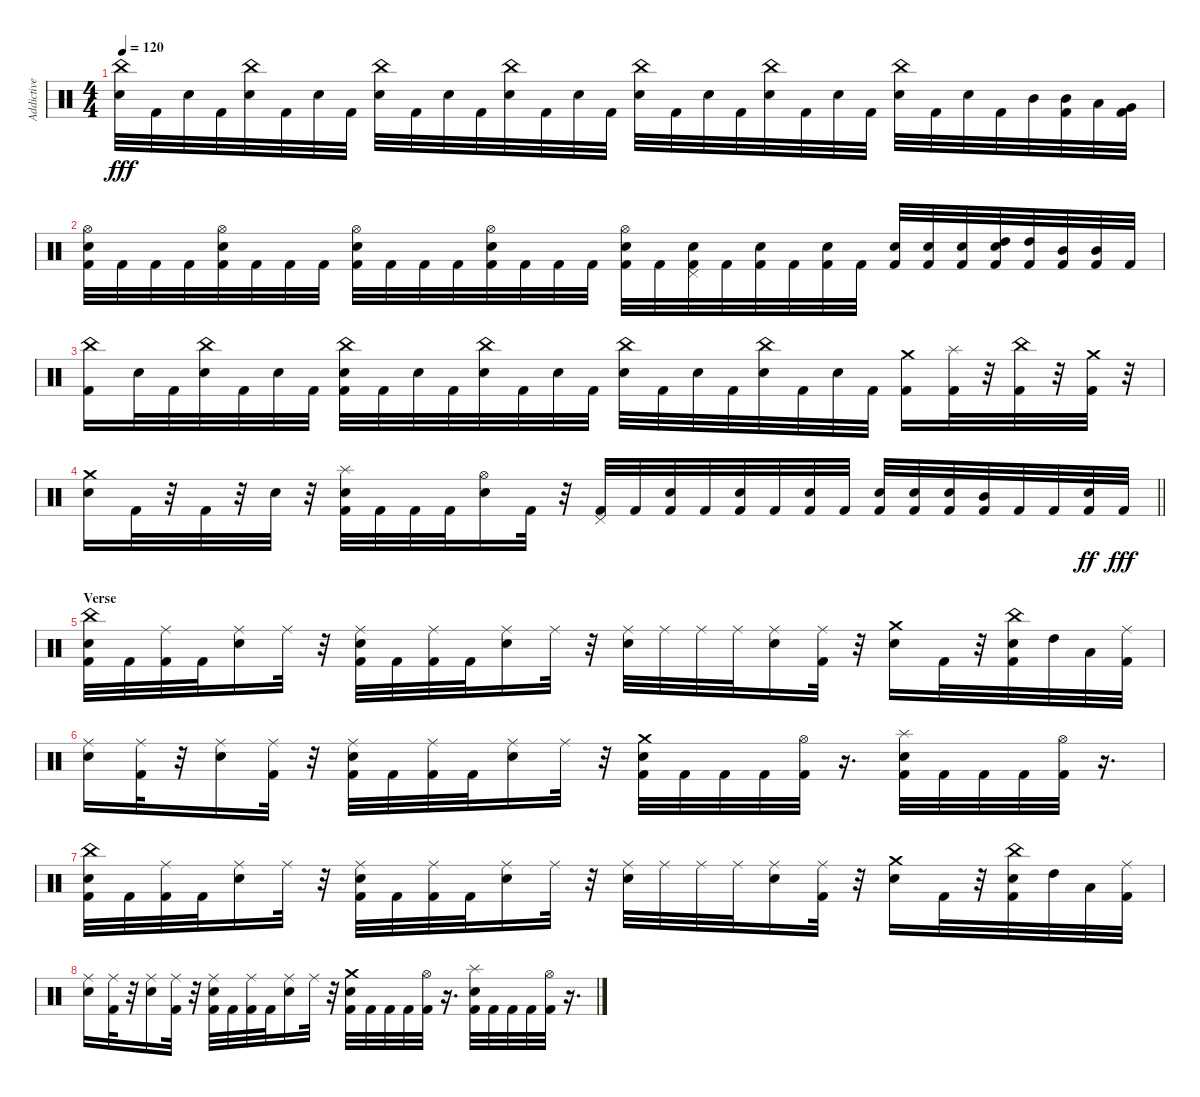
\track ("Addictive Drums 07" "Addictive ") {instrument percussion}
\staff {score}
\articulation defaults
\ts (4 4)
\tempo 120
\clef neutral
\ks c
("Snare (hit) 2" "China (hit)").32{dy fff} "Kick (hit) 2".32 "Snare (hit) 2".32 "Kick (hit) 2".32 ("Snare (hit) 2" "China (hit)").32 "Kick (hit) 2".32 "Snare (hit) 2".32 "Kick (hit) 2".32 ("Snare (hit) 2" "China (hit)").32 "Kick (hit) 2".32 "Snare (hit) 2".32 "Kick (hit) 2".32 ("Snare (hit) 2" "China (hit)").32 "Kick (hit) 2".32 "Snare (hit) 2".32 "Kick (hit) 2".32 ("Snare (hit) 2" "China (hit)").32 "Kick (hit) 2".32 "Snare (hit) 2".32 "Kick (hit) 2".32 ("Snare (hit) 2" "China (hit)").32 "Kick (hit) 2".32 "Snare (hit) 2".32 "Kick (hit) 2".32 ("Snare (hit) 2" "China (hit)").32 "Kick (hit) 2".32 "Snare (hit) 2".32 "Kick (hit) 2".32 "Mid Tom (hit)".32 ("Kick (hit) 2" "Mid Tom (hit)").32 "Low Tom (hit)".32 ("Kick (hit) 2" "Very Low Tom (hit)").32 |
("Kick (hit) 2" "Snare (hit) 2" "Hi-Hat (open)").32 "Kick (hit) 2".32 "Kick (hit) 2".32 "Kick (hit) 2".32 ("Kick (hit) 2" "Snare (hit) 2" "Hi-Hat (open)").32 "Kick (hit) 2".32 "Kick (hit) 2".32 "Kick (hit) 2".32 ("Kick (hit) 2" "Snare (hit) 2" "Hi-Hat (open)").32 "Kick (hit) 2".32 "Kick (hit) 2".32 "Kick (hit) 2".32 ("Kick (hit) 2" "Snare (hit) 2" "Hi-Hat (open)").32 "Kick (hit) 2".32 "Kick (hit) 2".32 "Kick (hit) 2".32 ("Kick (hit) 2" "Snare (hit) 2" "Hi-Hat (open)").32 "Kick (hit) 2".32 ("Kick (hit) 2" "Snare (hit) 2" "Pedal Hi-Hat (hit)").32 "Kick (hit) 2".32 ("Kick (hit) 2" "Snare (hit) 2").32 "Kick (hit) 2".32 ("Kick (hit) 2" "Snare (hit) 2").32 "Kick (hit) 2".32 ("Kick (hit) 2" "Snare (hit) 2").32 ("Kick (hit) 2" "Snare (hit) 2").32 ("Kick (hit) 2" "Snare (hit) 2").32 ("Kick (hit) 2" "Snare (hit) 2" "High Tom (hit)").32 ("Kick (hit) 2" "High Tom (hit)").32 ("Kick (hit) 2" "Mid Tom (hit)").32 ("Kick (hit) 2" "Mid Tom (hit)").32 "Kick (hit) 2".32 |
("Kick (hit) 2" "China (hit)").16 "Snare (hit) 2".32 "Kick (hit) 2".32 ("Snare (hit) 2" "China (hit)").32 "Kick (hit) 2".32 "Snare (hit) 2".32 "Kick (hit) 2".32 ("Kick (hit) 2" "Snare (hit) 2" "China (hit)").32 "Kick (hit) 2".32 "Snare (hit) 2".32 "Kick (hit) 2".32 ("Snare (hit) 2" "China (hit)").32 "Kick (hit) 2".32 "Snare (hit) 2".32 "Kick (hit) 2".32 ("Snare (hit) 2" "China (hit)").32 "Kick (hit) 2".32 "Snare (hit) 2".32 "Kick (hit) 2".32 ("Snare (hit) 2" "China (hit)").32 "Kick (hit) 2".32 "Snare (hit) 2".32 "Kick (hit) 2".32 ("Kick (hit) 2" "Crash medium (hit)").16 ("Kick (hit) 2" "Splash (hit)").32 r.32 ("Kick (hit) 2" "China (hit)").32 r.32 ("Kick (hit) 2" "Crash medium (hit)").32 r.32 |
\barLineRight lightlight
("Snare (hit) 2" "Crash medium (hit)").16 "Kick (hit) 2".32 r.32 "Kick (hit) 2".32 r.32 "Snare (hit) 2".32 r.32 ("Kick (hit) 2" "Snare (hit) 2" "Splash (hit)").32 "Kick (hit) 2".32 "Kick (hit) 2".32 "Kick (hit) 2".32 ("Snare (hit) 2" "Hi-Hat (open)").16 "Kick (hit) 2".32 r.32 ("Kick (hit) 2" "Pedal Hi-Hat (hit)").32 "Kick (hit) 2".32 ("Kick (hit) 2" "Snare (hit) 2").32 "Kick (hit) 2".32 ("Kick (hit) 2" "Snare (hit) 2").32 "Kick (hit) 2".32 ("Kick (hit) 2" "Snare (hit) 2").32 "Kick (hit) 2".32 ("Kick (hit) 2" "Snare (hit) 2").32 ("Kick (hit) 2" "Snare (hit) 2").32 ("Kick (hit) 2" "Snare (hit) 2").32 ("Kick (hit) 2" "Mid Tom (hit)").32 "Kick (hit) 2".32 "Kick (hit) 2".32 ("Kick (hit) 2" "Snare (hit) 2").32{dy ff} "Kick (hit) 2".32{dy fff} |
\section ("" "Verse")
("Kick (hit) 2" "Snare (hit) 2" "China (hit)").32 "Kick (hit) 2".32 ("Kick (hit) 2" "Ride (middle)").32 "Kick (hit) 2".32 ("Snare (hit) 2" "Ride (middle)").16 "Ride (middle)".32 r.32 ("Kick (hit) 2" "Snare (hit) 2" "Ride (middle)").32 "Kick (hit) 2".32 ("Kick (hit) 2" "Ride (middle)").32 "Kick (hit) 2".32 ("Snare (hit) 2" "Ride (middle)").16 "Ride (middle)".32 r.32 ("Snare (hit) 2" "Ride (middle)").32 "Ride (middle)".32 "Ride (middle)".32 "Ride (middle)".32 ("Snare (hit) 2" "Ride (middle)").16 ("Kick (hit) 2" "Ride (middle)").32 r.32 ("Snare (hit) 2" "Crash medium (hit)").16 "Kick (hit) 2".32 r.32 ("Kick (hit) 2" "Snare (hit) 2" "China (hit)").32 "High Tom (hit)".32 "Low Tom (hit)".32 ("Kick (hit) 2" "Ride (middle)").32 |
("Snare (hit) 2" "Ride (middle)").16 ("Kick (hit) 2" "Ride (middle)").32 r.32 ("Snare (hit) 2" "Ride (middle)").16 ("Kick (hit) 2" "Ride (middle)").32 r.32 ("Kick (hit) 2" "Snare (hit) 2" "Ride (middle)").32 "Kick (hit) 2".32 ("Kick (hit) 2" "Ride (middle)").32 "Kick (hit) 2".32 ("Snare (hit) 2" "Ride (middle)").16 "Ride (middle)".32 r.32 ("Kick (hit) 2" "Snare (hit) 2" "Crash medium (hit)").32 "Kick (hit) 2".32 "Kick (hit) 2".32 "Kick (hit) 2".32 ("Kick (hit) 2" "Hi-Hat (open)").32 r.16{d} ("Kick (hit) 2" "Snare (hit) 2" "Splash (hit)").32 "Kick (hit) 2".32 "Kick (hit) 2".32 "Kick (hit) 2".32 ("Kick (hit) 2" "Hi-Hat (open)").32 r.16{d} |
("Kick (hit) 2" "Snare (hit) 2" "China (hit)").32 "Kick (hit) 2".32 ("Kick (hit) 2" "Ride (middle)").32 "Kick (hit) 2".32 ("Snare (hit) 2" "Ride (middle)").16 "Ride (middle)".32 r.32 ("Kick (hit) 2" "Snare (hit) 2" "Ride (middle)").32 "Kick (hit) 2".32 ("Kick (hit) 2" "Ride (middle)").32 "Kick (hit) 2".32 ("Snare (hit) 2" "Ride (middle)").16 "Ride (middle)".32 r.32 ("Snare (hit) 2" "Ride (middle)").32 "Ride (middle)".32 "Ride (middle)".32 "Ride (middle)".32 ("Snare (hit) 2" "Ride (middle)").16 ("Kick (hit) 2" "Ride (middle)").32 r.32 ("Snare (hit) 2" "Crash medium (hit)").16 "Kick (hit) 2".32 r.32 ("Kick (hit) 2" "Snare (hit) 2" "China (hit)").32 "High Tom (hit)".32 "Low Tom (hit)".32 ("Kick (hit) 2" "Ride (middle)").32 |
("Snare (hit) 2" "Ride (middle)").16 ("Kick (hit) 2" "Ride (middle)").32 r.32 ("Snare (hit) 2" "Ride (middle)").16 ("Kick (hit) 2" "Ride (middle)").32 r.32 ("Kick (hit) 2" "Snare (hit) 2" "Ride (middle)").32 "Kick (hit) 2".32 ("Kick (hit) 2" "Ride (middle)").32 "Kick (hit) 2".32 ("Snare (hit) 2" "Ride (middle)").16 "Ride (middle)".32 r.32 ("Kick (hit) 2" "Snare (hit) 2" "Crash medium (hit)").32 "Kick (hit) 2".32 "Kick (hit) 2".32 "Kick (hit) 2".32 ("Kick (hit) 2" "Hi-Hat (open)").32 r.16{d} ("Kick (hit) 2" "Snare (hit) 2" "Splash (hit)").32 "Kick (hit) 2".32 "Kick (hit) 2".32 "Kick (hit) 2".32 ("Kick (hit) 2" "Hi-Hat (open)").32 r.16{d}
